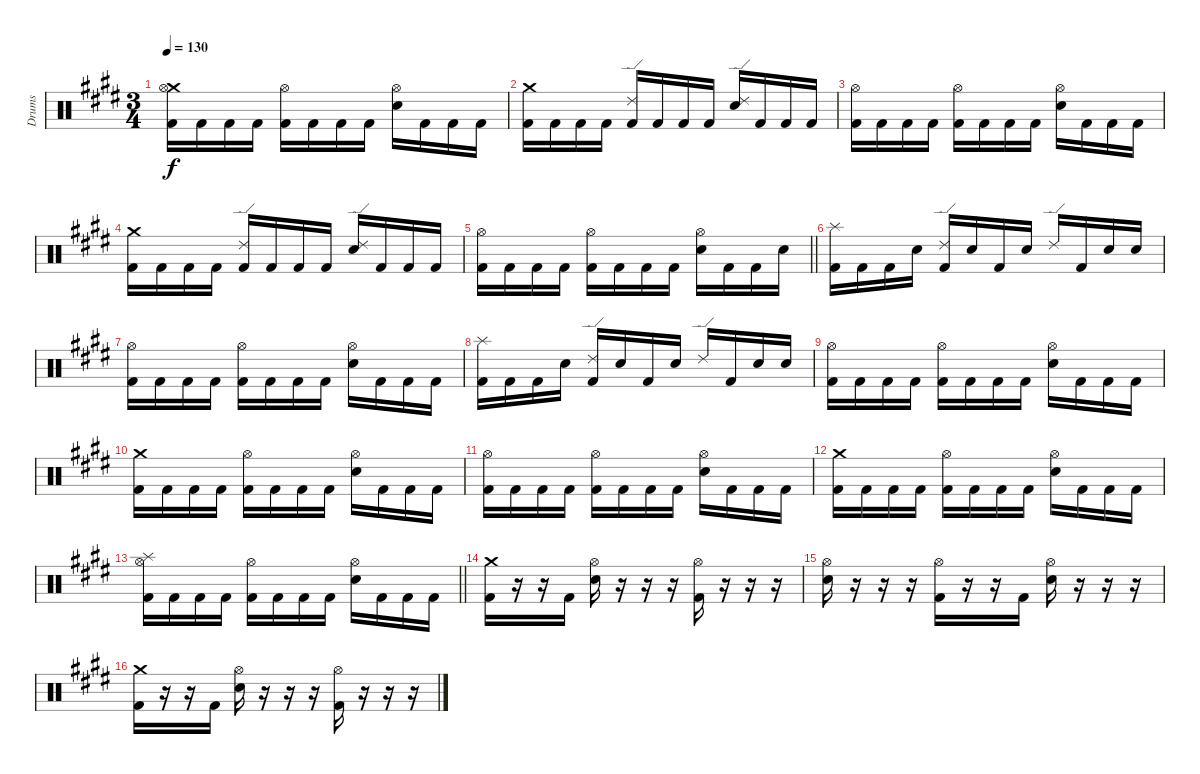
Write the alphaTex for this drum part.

\track ("Drums" "Drums") {instrument percussion}
\staff {score}
\articulation defaults
\ts (3 4)
\tempo 130
\clef neutral
\ks e
("Kick (hit) 2" "Crash medium (hit)" "Hi-Hat (open)").16{dy f} "Kick (hit) 2".16 "Kick (hit) 2".16 "Kick (hit) 2".16 ("Kick (hit) 2" "Hi-Hat (open)").16 "Kick (hit) 2".16 "Kick (hit) 2".16 "Kick (hit) 2".16 ("Electric Snare (hit)" "Hi-Hat (open)").16 "Kick (hit) 2".16 "Kick (hit) 2".16 "Kick (hit) 2".16 |
("Kick (hit) 2" "Crash medium (hit)").16 "Kick (hit) 2".16 "Kick (hit) 2".16 "Kick (hit) 2".16 ("Kick (hit) 2" "Ride (edge) 2").16 "Kick (hit) 2".16 "Kick (hit) 2".16 "Kick (hit) 2".16 ("Electric Snare (hit)" "Ride (edge) 2").16 "Kick (hit) 2".16 "Kick (hit) 2".16 "Kick (hit) 2".16 |
("Kick (hit) 2" "Hi-Hat (open)").16 "Kick (hit) 2".16 "Kick (hit) 2".16 "Kick (hit) 2".16 ("Kick (hit) 2" "Hi-Hat (open)").16 "Kick (hit) 2".16 "Kick (hit) 2".16 "Kick (hit) 2".16 ("Electric Snare (hit)" "Hi-Hat (open)").16 "Kick (hit) 2".16 "Kick (hit) 2".16 "Kick (hit) 2".16 |
("Kick (hit) 2" "Crash medium (hit)").16 "Kick (hit) 2".16 "Kick (hit) 2".16 "Kick (hit) 2".16 ("Kick (hit) 2" "Ride (edge) 2").16 "Kick (hit) 2".16 "Kick (hit) 2".16 "Kick (hit) 2".16 ("Electric Snare (hit)" "Ride (edge) 2").16 "Kick (hit) 2".16 "Kick (hit) 2".16 "Kick (hit) 2".16 |
\barLineRight lightlight
("Kick (hit) 2" "Hi-Hat (open)").16 "Kick (hit) 2".16 "Kick (hit) 2".16 "Kick (hit) 2".16 ("Kick (hit) 2" "Hi-Hat (open)").16 "Kick (hit) 2".16 "Kick (hit) 2".16 "Kick (hit) 2".16 ("Electric Snare (hit)" "Hi-Hat (open)").16 "Kick (hit) 2".16 "Kick (hit) 2".16 "Electric Snare (hit)".16 |
("Kick (hit) 2" "Splash (hit)").16 "Kick (hit) 2".16 "Kick (hit) 2".16 "Electric Snare (hit)".16 ("Kick (hit) 2" "Ride (edge) 2").16 "Electric Snare (hit)".16 "Kick (hit) 2".16 "Electric Snare (hit)".16 "Ride (edge) 2".16 "Kick (hit) 2".16 "Electric Snare (hit)".16 "Electric Snare (hit)".16 |
("Kick (hit) 2" "Hi-Hat (open)").16 "Kick (hit) 2".16 "Kick (hit) 2".16 "Kick (hit) 2".16 ("Kick (hit) 2" "Hi-Hat (open)").16 "Kick (hit) 2".16 "Kick (hit) 2".16 "Kick (hit) 2".16 ("Electric Snare (hit)" "Hi-Hat (open)").16 "Kick (hit) 2".16 "Kick (hit) 2".16 "Kick (hit) 2".16 |
("Kick (hit) 2" "Splash (hit)").16 "Kick (hit) 2".16 "Kick (hit) 2".16 "Electric Snare (hit)".16 ("Kick (hit) 2" "Ride (edge) 2").16 "Electric Snare (hit)".16 "Kick (hit) 2".16 "Electric Snare (hit)".16 "Ride (edge) 2".16 "Kick (hit) 2".16 "Electric Snare (hit)".16 "Electric Snare (hit)".16 |
("Kick (hit) 2" "Hi-Hat (open)").16 "Kick (hit) 2".16 "Kick (hit) 2".16 "Kick (hit) 2".16 ("Kick (hit) 2" "Hi-Hat (open)").16 "Kick (hit) 2".16 "Kick (hit) 2".16 "Kick (hit) 2".16 ("Electric Snare (hit)" "Hi-Hat (open)").16 "Kick (hit) 2".16 "Kick (hit) 2".16 "Kick (hit) 2".16 |
("Kick (hit) 2" "Crash medium (hit)").16 "Kick (hit) 2".16 "Kick (hit) 2".16 "Kick (hit) 2".16 ("Kick (hit) 2" "Hi-Hat (open)").16 "Kick (hit) 2".16 "Kick (hit) 2".16 "Kick (hit) 2".16 ("Electric Snare (hit)" "Hi-Hat (open)").16 "Kick (hit) 2".16 "Kick (hit) 2".16 "Kick (hit) 2".16 |
("Kick (hit) 2" "Hi-Hat (open)").16 "Kick (hit) 2".16 "Kick (hit) 2".16 "Kick (hit) 2".16 ("Kick (hit) 2" "Hi-Hat (open)").16 "Kick (hit) 2".16 "Kick (hit) 2".16 "Kick (hit) 2".16 ("Electric Snare (hit)" "Hi-Hat (open)").16 "Kick (hit) 2".16 "Kick (hit) 2".16 "Kick (hit) 2".16 |
("Kick (hit) 2" "Crash medium (hit)").16 "Kick (hit) 2".16 "Kick (hit) 2".16 "Kick (hit) 2".16 ("Kick (hit) 2" "Hi-Hat (open)").16 "Kick (hit) 2".16 "Kick (hit) 2".16 "Kick (hit) 2".16 ("Electric Snare (hit)" "Hi-Hat (open)").16 "Kick (hit) 2".16 "Kick (hit) 2".16 "Kick (hit) 2".16 |
\barLineRight lightlight
("Kick (hit) 2" "Splash (hit)" "Hi-Hat (open)").16 "Kick (hit) 2".16 "Kick (hit) 2".16 "Kick (hit) 2".16 ("Kick (hit) 2" "Hi-Hat (open)").16 "Kick (hit) 2".16 "Kick (hit) 2".16 "Kick (hit) 2".16 ("Electric Snare (hit)" "Hi-Hat (open)").16 "Kick (hit) 2".16 "Kick (hit) 2".16 "Kick (hit) 2".16 |
("Kick (hit) 2" "Crash medium (hit)").16 r.16 r.16 "Kick (hit) 2".16 ("Electric Snare (hit)" "Hi-Hat (open)").16 r.16 r.16 r.16 ("Kick (hit) 2" "Hi-Hat (open)").16 r.16 r.16 r.16 |
("Electric Snare (hit)" "Hi-Hat (open)").16 r.16 r.16 r.16 ("Kick (hit) 2" "Hi-Hat (open)").16 r.16 r.16 "Kick (hit) 2".16 ("Electric Snare (hit)" "Hi-Hat (open)").16 r.16 r.16 r.16 |
("Kick (hit) 2" "Crash medium (hit)").16 r.16 r.16 "Kick (hit) 2".16 ("Electric Snare (hit)" "Hi-Hat (open)").16 r.16 r.16 r.16 ("Kick (hit) 2" "Hi-Hat (open)").16 r.16 r.16 r.16
